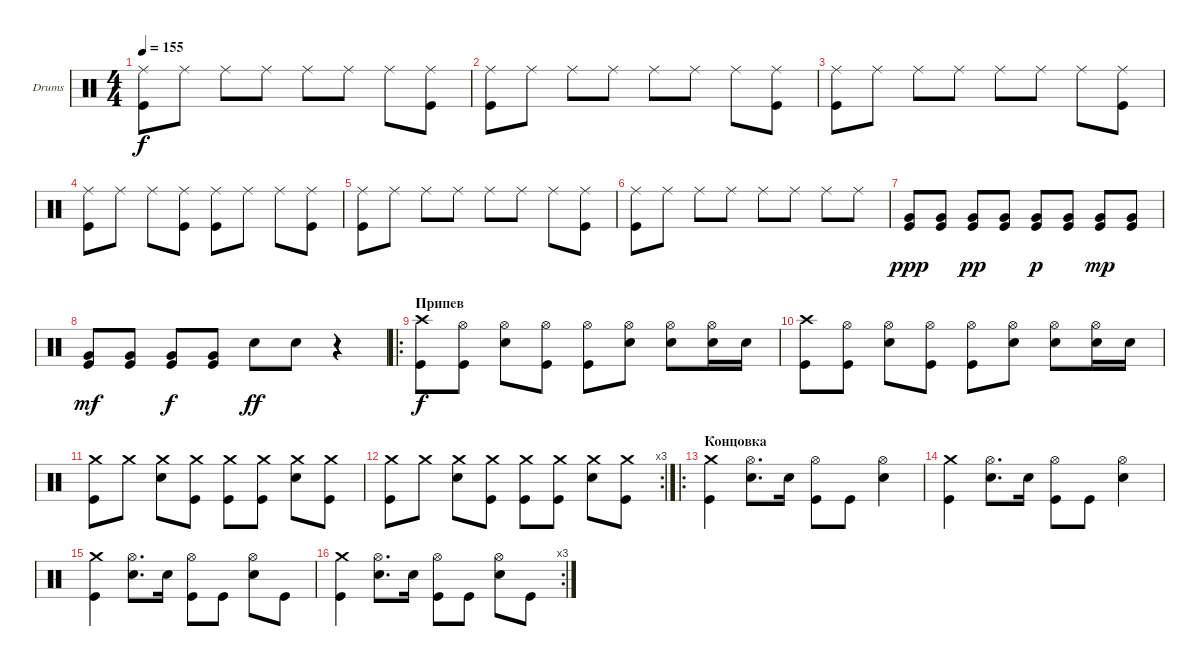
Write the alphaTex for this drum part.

\bracketExtendMode groupsimilarinstruments
\firstSystemTrackNameOrientation horizontal
\otherSystemsTrackNameOrientation horizontal
\track ("Drumkit" "Drums") {instrument percussion}
\staff {score}
\articulation defaults
\ts (4 4)
\tempo 155
\clef neutral
\ks c
("Ride (middle)" "Kick (hit)").8{dy f} "Ride (middle)".8 "Ride (middle)".8 "Ride (middle)".8 "Ride (middle)".8 "Ride (middle)".8 "Ride (middle)".8 ("Ride (middle)" "Kick (hit)").8 |
("Ride (middle)" "Kick (hit)").8 "Ride (middle)".8 "Ride (middle)".8 "Ride (middle)".8 "Ride (middle)".8 "Ride (middle)".8 "Ride (middle)".8 ("Ride (middle)" "Kick (hit)").8 |
("Ride (middle)" "Kick (hit)").8 "Ride (middle)".8 "Ride (middle)".8 "Ride (middle)".8 "Ride (middle)".8 "Ride (middle)".8 "Ride (middle)".8 ("Ride (middle)" "Kick (hit)").8 |
("Ride (middle)" "Kick (hit)").8 "Ride (middle)".8 "Ride (middle)".8 ("Ride (middle)" "Kick (hit)").8 ("Ride (middle)" "Kick (hit)").8 "Ride (middle)".8 "Ride (middle)".8 ("Ride (middle)" "Kick (hit)").8 |
("Ride (middle)" "Kick (hit)").8 "Ride (middle)".8 "Ride (middle)".8 "Ride (middle)".8 "Ride (middle)".8 "Ride (middle)".8 "Ride (middle)".8 ("Ride (middle)" "Kick (hit)").8 |
("Ride (middle)" "Kick (hit)").8 "Ride (middle)".8 "Ride (middle)".8 "Ride (middle)".8 "Ride (middle)".8 "Ride (middle)".8 "Ride (middle)".8 "Ride (middle)".8 |
("Kick (hit)" "Very Low Tom (hit)").8{dy ppp} ("Kick (hit)" "Very Low Tom (hit)").8 ("Kick (hit)" "Very Low Tom (hit)").8{dy pp} ("Kick (hit)" "Very Low Tom (hit)").8 ("Kick (hit)" "Very Low Tom (hit)").8{dy p} ("Kick (hit)" "Very Low Tom (hit)").8 ("Kick (hit)" "Very Low Tom (hit)").8{dy mp} ("Kick (hit)" "Very Low Tom (hit)").8 |
("Kick (hit)" "Very Low Tom (hit)").8{dy mf} ("Very Low Tom (hit)" "Kick (hit)").8 ("Very Low Tom (hit)" "Kick (hit)").8{dy f} ("Very Low Tom (hit)" "Kick (hit)").8 "Snare (hit) 2".8{dy ff} "Snare (hit) 2".8 r.4 |
\ro
\section ("" "Припев")
("Kick (hit)" "Crash high (hit)").8{dy f} ("Hi-Hat (open)" "Kick (hit)").8 ("Hi-Hat (open)" "Snare (hit) 2").8 ("Hi-Hat (open)" "Kick (hit)").8 ("Hi-Hat (open)" "Kick (hit)").8 ("Hi-Hat (open)" "Snare (hit) 2").8 ("Hi-Hat (open)" "Snare (hit) 2").8 ("Hi-Hat (open)" "Snare (hit) 2").16 "Snare (hit) 2".16 |
("Kick (hit)" "Crash high (hit)").8 ("Hi-Hat (open)" "Kick (hit)").8 ("Hi-Hat (open)" "Snare (hit) 2").8 ("Hi-Hat (open)" "Kick (hit)").8 ("Hi-Hat (open)" "Kick (hit)").8 ("Hi-Hat (open)" "Snare (hit) 2").8 ("Hi-Hat (open)" "Snare (hit) 2").8 ("Hi-Hat (open)" "Snare (hit) 2").16 "Snare (hit) 2".16 |
("Crash medium (hit)" "Kick (hit)").8 "Crash medium (hit)".8 ("Snare (hit) 2" "Crash medium (hit)").8 ("Kick (hit)" "Crash medium (hit)").8 ("Kick (hit)" "Crash medium (hit)").8 ("Crash medium (hit)" "Kick (hit)").8 ("Snare (hit) 2" "Crash medium (hit)").8 ("Crash medium (hit)" "Kick (hit)").8 |
\rc 3
("Crash medium (hit)" "Kick (hit)").8 "Crash medium (hit)".8 ("Snare (hit) 2" "Crash medium (hit)").8 ("Kick (hit)" "Crash medium (hit)").8 ("Kick (hit)" "Crash medium (hit)").8 ("Crash medium (hit)" "Kick (hit)").8 ("Snare (hit) 2" "Crash medium (hit)").8 ("Crash medium (hit)" "Kick (hit)").8 |
\ro
\section ("" "Концовка")
("Crash medium (hit)" "Kick (hit)").4 ("Snare (hit) 2" "Hi-Hat (open)").8{d} "Snare (hit) 2".16 ("Kick (hit)" "Hi-Hat (open)").8 "Kick (hit)".8 ("Snare (hit) 2" "Hi-Hat (open)").4 |
("Crash medium (hit)" "Kick (hit)").4 ("Snare (hit) 2" "Hi-Hat (open)").8{d} "Snare (hit) 2".16 ("Kick (hit)" "Hi-Hat (open)").8 "Kick (hit)".8 ("Snare (hit) 2" "Hi-Hat (open)").4 |
("Crash medium (hit)" "Kick (hit)").4 ("Snare (hit) 2" "Hi-Hat (open)").8{d} "Snare (hit) 2".16 ("Kick (hit)" "Hi-Hat (open)").8 "Kick (hit)".8 ("Snare (hit) 2" "Hi-Hat (open)").8 "Kick (hit)".8 |
\rc 3
("Crash medium (hit)" "Kick (hit)").4 ("Snare (hit) 2" "Hi-Hat (open)").8{d} "Snare (hit) 2".16 ("Kick (hit)" "Hi-Hat (open)").8 "Kick (hit)".8 ("Snare (hit) 2" "Hi-Hat (open)").8 "Kick (hit)".8
